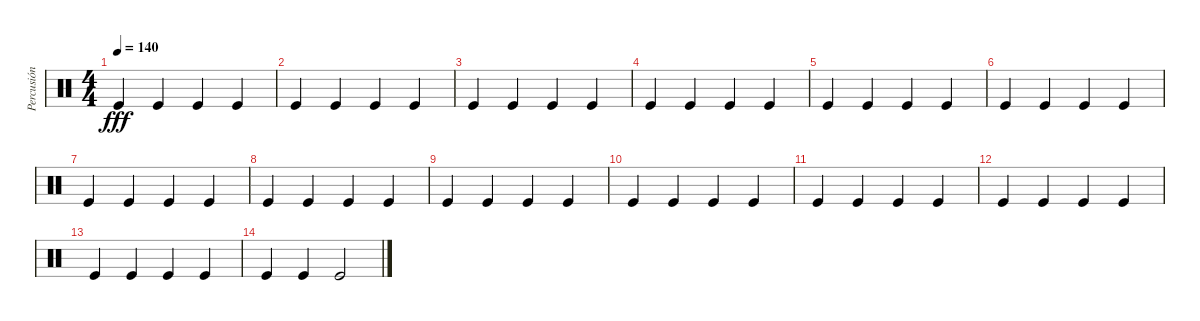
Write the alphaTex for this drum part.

\track ("Percusión" "Percusión") {instrument percussion}
\staff {score}
\articulation defaults
\ts (4 4)
\tempo 140
\clef neutral
\ks c "Kick (hit)".4{dy fff} "Kick (hit)".4 "Kick (hit)".4 "Kick (hit)".4
|
"Kick (hit)".4 "Kick (hit)".4 "Kick (hit)".4 "Kick (hit)".4 |
"Kick (hit)".4 "Kick (hit)".4 "Kick (hit)".4 "Kick (hit)".4 |
"Kick (hit)".4 "Kick (hit)".4 "Kick (hit)".4 "Kick (hit)".4 |
"Kick (hit)".4 "Kick (hit)".4 "Kick (hit)".4 "Kick (hit)".4 |
"Kick (hit)".4 "Kick (hit)".4 "Kick (hit)".4 "Kick (hit)".4 |
"Kick (hit)".4 "Kick (hit)".4 "Kick (hit)".4 "Kick (hit)".4 |
"Kick (hit)".4 "Kick (hit)".4 "Kick (hit)".4 "Kick (hit)".4 |
"Kick (hit)".4 "Kick (hit)".4 "Kick (hit)".4 "Kick (hit)".4 |
"Kick (hit)".4 "Kick (hit)".4 "Kick (hit)".4 "Kick (hit)".4 |
"Kick (hit)".4 "Kick (hit)".4 "Kick (hit)".4 "Kick (hit)".4 |
"Kick (hit)".4 "Kick (hit)".4 "Kick (hit)".4 "Kick (hit)".4 |
"Kick (hit)".4 "Kick (hit)".4 "Kick (hit)".4 "Kick (hit)".4 |
"Kick (hit)".4 "Kick (hit)".4 "Kick (hit)".2
